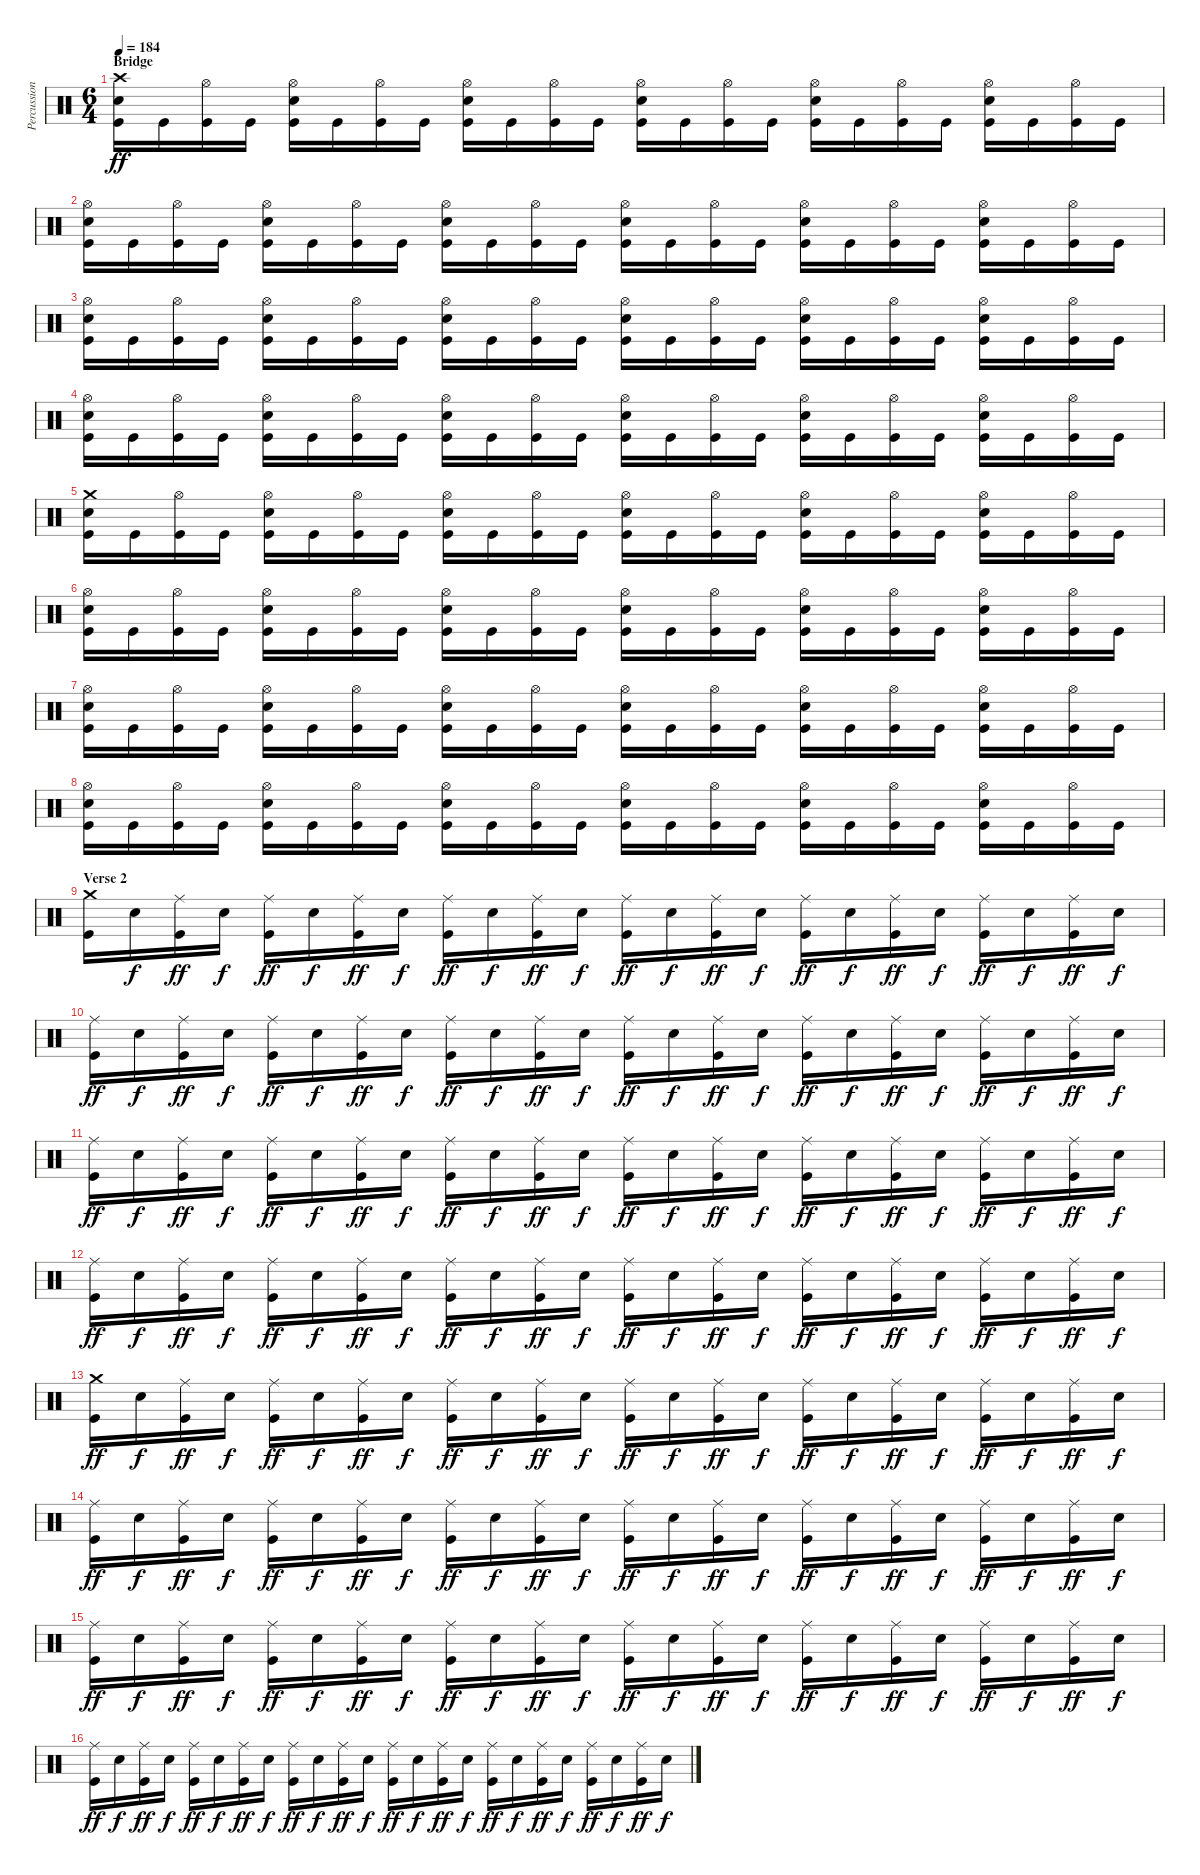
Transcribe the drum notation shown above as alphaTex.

\track ("Percussion" "Percussion") {instrument percussion}
\staff {score}
\articulation defaults
\ts (6 4)
\section ("" "Bridge")
\tempo 184
\clef neutral
\ks c
("Crash high (hit)" "Electric Snare (hit)" "Kick (hit)").16{dy ff} "Kick (hit)".16 ("Hi-Hat (open)" "Kick (hit)").16 "Kick (hit)".16 ("Hi-Hat (open)" "Electric Snare (hit)" "Kick (hit)").16 "Kick (hit)".16 ("Hi-Hat (open)" "Kick (hit)").16 "Kick (hit)".16 ("Hi-Hat (open)" "Electric Snare (hit)" "Kick (hit)").16 "Kick (hit)".16 ("Hi-Hat (open)" "Kick (hit)").16 "Kick (hit)".16 ("Hi-Hat (open)" "Electric Snare (hit)" "Kick (hit)").16 "Kick (hit)".16 ("Hi-Hat (open)" "Kick (hit)").16 "Kick (hit)".16 ("Hi-Hat (open)" "Electric Snare (hit)" "Kick (hit)").16 "Kick (hit)".16 ("Hi-Hat (open)" "Kick (hit)").16 "Kick (hit)".16 ("Hi-Hat (open)" "Electric Snare (hit)" "Kick (hit)").16 "Kick (hit)".16 ("Hi-Hat (open)" "Kick (hit)").16 "Kick (hit)".16 |
("Hi-Hat (open)" "Electric Snare (hit)" "Kick (hit)").16 "Kick (hit)".16 ("Hi-Hat (open)" "Kick (hit)").16 "Kick (hit)".16 ("Hi-Hat (open)" "Electric Snare (hit)" "Kick (hit)").16 "Kick (hit)".16 ("Hi-Hat (open)" "Kick (hit)").16 "Kick (hit)".16 ("Hi-Hat (open)" "Electric Snare (hit)" "Kick (hit)").16 "Kick (hit)".16 ("Hi-Hat (open)" "Kick (hit)").16 "Kick (hit)".16 ("Hi-Hat (open)" "Electric Snare (hit)" "Kick (hit)").16 "Kick (hit)".16 ("Hi-Hat (open)" "Kick (hit)").16 "Kick (hit)".16 ("Hi-Hat (open)" "Electric Snare (hit)" "Kick (hit)").16 "Kick (hit)".16 ("Hi-Hat (open)" "Kick (hit)").16 "Kick (hit)".16 ("Hi-Hat (open)" "Electric Snare (hit)" "Kick (hit)").16 "Kick (hit)".16 ("Hi-Hat (open)" "Kick (hit)").16 "Kick (hit)".16 |
("Hi-Hat (open)" "Electric Snare (hit)" "Kick (hit)").16 "Kick (hit)".16 ("Hi-Hat (open)" "Kick (hit)").16 "Kick (hit)".16 ("Hi-Hat (open)" "Electric Snare (hit)" "Kick (hit)").16 "Kick (hit)".16 ("Hi-Hat (open)" "Kick (hit)").16 "Kick (hit)".16 ("Hi-Hat (open)" "Electric Snare (hit)" "Kick (hit)").16 "Kick (hit)".16 ("Hi-Hat (open)" "Kick (hit)").16 "Kick (hit)".16 ("Hi-Hat (open)" "Electric Snare (hit)" "Kick (hit)").16 "Kick (hit)".16 ("Hi-Hat (open)" "Kick (hit)").16 "Kick (hit)".16 ("Hi-Hat (open)" "Electric Snare (hit)" "Kick (hit)").16 "Kick (hit)".16 ("Hi-Hat (open)" "Kick (hit)").16 "Kick (hit)".16 ("Hi-Hat (open)" "Electric Snare (hit)" "Kick (hit)").16 "Kick (hit)".16 ("Hi-Hat (open)" "Kick (hit)").16 "Kick (hit)".16 |
("Hi-Hat (open)" "Electric Snare (hit)" "Kick (hit)").16 "Kick (hit)".16 ("Hi-Hat (open)" "Kick (hit)").16 "Kick (hit)".16 ("Hi-Hat (open)" "Electric Snare (hit)" "Kick (hit)").16 "Kick (hit)".16 ("Hi-Hat (open)" "Kick (hit)").16 "Kick (hit)".16 ("Hi-Hat (open)" "Electric Snare (hit)" "Kick (hit)").16 "Kick (hit)".16 ("Hi-Hat (open)" "Kick (hit)").16 "Kick (hit)".16 ("Hi-Hat (open)" "Electric Snare (hit)" "Kick (hit)").16 "Kick (hit)".16 ("Hi-Hat (open)" "Kick (hit)").16 "Kick (hit)".16 ("Hi-Hat (open)" "Electric Snare (hit)" "Kick (hit)").16 "Kick (hit)".16 ("Hi-Hat (open)" "Kick (hit)").16 "Kick (hit)".16 ("Hi-Hat (open)" "Electric Snare (hit)" "Kick (hit)").16 "Kick (hit)".16 ("Hi-Hat (open)" "Kick (hit)").16 "Kick (hit)".16 |
("Crash medium (hit)" "Electric Snare (hit)" "Kick (hit)").16 "Kick (hit)".16 ("Hi-Hat (open)" "Kick (hit)").16 "Kick (hit)".16 ("Hi-Hat (open)" "Electric Snare (hit)" "Kick (hit)").16 "Kick (hit)".16 ("Hi-Hat (open)" "Kick (hit)").16 "Kick (hit)".16 ("Hi-Hat (open)" "Electric Snare (hit)" "Kick (hit)").16 "Kick (hit)".16 ("Hi-Hat (open)" "Kick (hit)").16 "Kick (hit)".16 ("Hi-Hat (open)" "Electric Snare (hit)" "Kick (hit)").16 "Kick (hit)".16 ("Hi-Hat (open)" "Kick (hit)").16 "Kick (hit)".16 ("Hi-Hat (open)" "Electric Snare (hit)" "Kick (hit)").16 "Kick (hit)".16 ("Hi-Hat (open)" "Kick (hit)").16 "Kick (hit)".16 ("Hi-Hat (open)" "Electric Snare (hit)" "Kick (hit)").16 "Kick (hit)".16 ("Hi-Hat (open)" "Kick (hit)").16 "Kick (hit)".16 |
("Hi-Hat (open)" "Electric Snare (hit)" "Kick (hit)").16 "Kick (hit)".16 ("Hi-Hat (open)" "Kick (hit)").16 "Kick (hit)".16 ("Hi-Hat (open)" "Electric Snare (hit)" "Kick (hit)").16 "Kick (hit)".16 ("Hi-Hat (open)" "Kick (hit)").16 "Kick (hit)".16 ("Hi-Hat (open)" "Electric Snare (hit)" "Kick (hit)").16 "Kick (hit)".16 ("Hi-Hat (open)" "Kick (hit)").16 "Kick (hit)".16 ("Hi-Hat (open)" "Electric Snare (hit)" "Kick (hit)").16 "Kick (hit)".16 ("Hi-Hat (open)" "Kick (hit)").16 "Kick (hit)".16 ("Hi-Hat (open)" "Electric Snare (hit)" "Kick (hit)").16 "Kick (hit)".16 ("Hi-Hat (open)" "Kick (hit)").16 "Kick (hit)".16 ("Hi-Hat (open)" "Electric Snare (hit)" "Kick (hit)").16 "Kick (hit)".16 ("Hi-Hat (open)" "Kick (hit)").16 "Kick (hit)".16 |
("Hi-Hat (open)" "Electric Snare (hit)" "Kick (hit)").16 "Kick (hit)".16 ("Hi-Hat (open)" "Kick (hit)").16 "Kick (hit)".16 ("Hi-Hat (open)" "Electric Snare (hit)" "Kick (hit)").16 "Kick (hit)".16 ("Hi-Hat (open)" "Kick (hit)").16 "Kick (hit)".16 ("Hi-Hat (open)" "Electric Snare (hit)" "Kick (hit)").16 "Kick (hit)".16 ("Hi-Hat (open)" "Kick (hit)").16 "Kick (hit)".16 ("Hi-Hat (open)" "Electric Snare (hit)" "Kick (hit)").16 "Kick (hit)".16 ("Hi-Hat (open)" "Kick (hit)").16 "Kick (hit)".16 ("Hi-Hat (open)" "Electric Snare (hit)" "Kick (hit)").16 "Kick (hit)".16 ("Hi-Hat (open)" "Kick (hit)").16 "Kick (hit)".16 ("Hi-Hat (open)" "Electric Snare (hit)" "Kick (hit)").16 "Kick (hit)".16 ("Hi-Hat (open)" "Kick (hit)").16 "Kick (hit)".16 |
("Hi-Hat (open)" "Electric Snare (hit)" "Kick (hit)").16 "Kick (hit)".16 ("Hi-Hat (open)" "Kick (hit)").16 "Kick (hit)".16 ("Hi-Hat (open)" "Electric Snare (hit)" "Kick (hit)").16 "Kick (hit)".16 ("Hi-Hat (open)" "Kick (hit)").16 "Kick (hit)".16 ("Hi-Hat (open)" "Electric Snare (hit)" "Kick (hit)").16 "Kick (hit)".16 ("Hi-Hat (open)" "Kick (hit)").16 "Kick (hit)".16 ("Hi-Hat (open)" "Electric Snare (hit)" "Kick (hit)").16 "Kick (hit)".16 ("Hi-Hat (open)" "Kick (hit)").16 "Kick (hit)".16 ("Hi-Hat (open)" "Electric Snare (hit)" "Kick (hit)").16 "Kick (hit)".16 ("Hi-Hat (open)" "Kick (hit)").16 "Kick (hit)".16 ("Hi-Hat (open)" "Electric Snare (hit)" "Kick (hit)").16 "Kick (hit)".16 ("Hi-Hat (open)" "Kick (hit)").16 "Kick (hit)".16 |
\section ("" "Verse 2")
("Crash medium (hit)" "Kick (hit)").16 "Electric Snare (hit)".16{dy f} ("Ride (middle)" "Kick (hit)").16{dy ff} "Electric Snare (hit)".16{dy f} ("Ride (middle)" "Kick (hit)").16{dy ff} "Electric Snare (hit)".16{dy f} ("Ride (middle)" "Kick (hit)").16{dy ff} "Electric Snare (hit)".16{dy f} ("Ride (middle)" "Kick (hit)").16{dy ff} "Electric Snare (hit)".16{dy f} ("Ride (middle)" "Kick (hit)").16{dy ff} "Electric Snare (hit)".16{dy f} ("Ride (middle)" "Kick (hit)").16{dy ff} "Electric Snare (hit)".16{dy f} ("Ride (middle)" "Kick (hit)").16{dy ff} "Electric Snare (hit)".16{dy f} ("Ride (middle)" "Kick (hit)").16{dy ff} "Electric Snare (hit)".16{dy f} ("Ride (middle)" "Kick (hit)").16{dy ff} "Electric Snare (hit)".16{dy f} ("Ride (middle)" "Kick (hit)").16{dy ff} "Electric Snare (hit)".16{dy f} ("Ride (middle)" "Kick (hit)").16{dy ff} "Electric Snare (hit)".16{dy f} |
("Ride (middle)" "Kick (hit)").16{dy ff} "Electric Snare (hit)".16{dy f} ("Ride (middle)" "Kick (hit)").16{dy ff} "Electric Snare (hit)".16{dy f} ("Ride (middle)" "Kick (hit)").16{dy ff} "Electric Snare (hit)".16{dy f} ("Ride (middle)" "Kick (hit)").16{dy ff} "Electric Snare (hit)".16{dy f} ("Ride (middle)" "Kick (hit)").16{dy ff} "Electric Snare (hit)".16{dy f} ("Ride (middle)" "Kick (hit)").16{dy ff} "Electric Snare (hit)".16{dy f} ("Ride (middle)" "Kick (hit)").16{dy ff} "Electric Snare (hit)".16{dy f} ("Ride (middle)" "Kick (hit)").16{dy ff} "Electric Snare (hit)".16{dy f} ("Ride (middle)" "Kick (hit)").16{dy ff} "Electric Snare (hit)".16{dy f} ("Ride (middle)" "Kick (hit)").16{dy ff} "Electric Snare (hit)".16{dy f} ("Ride (middle)" "Kick (hit)").16{dy ff} "Electric Snare (hit)".16{dy f} ("Ride (middle)" "Kick (hit)").16{dy ff} "Electric Snare (hit)".16{dy f} |
("Ride (middle)" "Kick (hit)").16{dy ff} "Electric Snare (hit)".16{dy f} ("Ride (middle)" "Kick (hit)").16{dy ff} "Electric Snare (hit)".16{dy f} ("Ride (middle)" "Kick (hit)").16{dy ff} "Electric Snare (hit)".16{dy f} ("Ride (middle)" "Kick (hit)").16{dy ff} "Electric Snare (hit)".16{dy f} ("Ride (middle)" "Kick (hit)").16{dy ff} "Electric Snare (hit)".16{dy f} ("Ride (middle)" "Kick (hit)").16{dy ff} "Electric Snare (hit)".16{dy f} ("Ride (middle)" "Kick (hit)").16{dy ff} "Electric Snare (hit)".16{dy f} ("Ride (middle)" "Kick (hit)").16{dy ff} "Electric Snare (hit)".16{dy f} ("Ride (middle)" "Kick (hit)").16{dy ff} "Electric Snare (hit)".16{dy f} ("Ride (middle)" "Kick (hit)").16{dy ff} "Electric Snare (hit)".16{dy f} ("Ride (middle)" "Kick (hit)").16{dy ff} "Electric Snare (hit)".16{dy f} ("Ride (middle)" "Kick (hit)").16{dy ff} "Electric Snare (hit)".16{dy f} |
("Ride (middle)" "Kick (hit)").16{dy ff} "Electric Snare (hit)".16{dy f} ("Ride (middle)" "Kick (hit)").16{dy ff} "Electric Snare (hit)".16{dy f} ("Ride (middle)" "Kick (hit)").16{dy ff} "Electric Snare (hit)".16{dy f} ("Ride (middle)" "Kick (hit)").16{dy ff} "Electric Snare (hit)".16{dy f} ("Ride (middle)" "Kick (hit)").16{dy ff} "Electric Snare (hit)".16{dy f} ("Ride (middle)" "Kick (hit)").16{dy ff} "Electric Snare (hit)".16{dy f} ("Ride (middle)" "Kick (hit)").16{dy ff} "Electric Snare (hit)".16{dy f} ("Ride (middle)" "Kick (hit)").16{dy ff} "Electric Snare (hit)".16{dy f} ("Ride (middle)" "Kick (hit)").16{dy ff} "Electric Snare (hit)".16{dy f} ("Ride (middle)" "Kick (hit)").16{dy ff} "Electric Snare (hit)".16{dy f} ("Ride (middle)" "Kick (hit)").16{dy ff} "Electric Snare (hit)".16{dy f} ("Ride (middle)" "Kick (hit)").16{dy ff} "Electric Snare (hit)".16{dy f} |
("Crash medium (hit)" "Kick (hit)").16{dy ff} "Electric Snare (hit)".16{dy f} ("Ride (middle)" "Kick (hit)").16{dy ff} "Electric Snare (hit)".16{dy f} ("Ride (middle)" "Kick (hit)").16{dy ff} "Electric Snare (hit)".16{dy f} ("Ride (middle)" "Kick (hit)").16{dy ff} "Electric Snare (hit)".16{dy f} ("Ride (middle)" "Kick (hit)").16{dy ff} "Electric Snare (hit)".16{dy f} ("Ride (middle)" "Kick (hit)").16{dy ff} "Electric Snare (hit)".16{dy f} ("Ride (middle)" "Kick (hit)").16{dy ff} "Electric Snare (hit)".16{dy f} ("Ride (middle)" "Kick (hit)").16{dy ff} "Electric Snare (hit)".16{dy f} ("Ride (middle)" "Kick (hit)").16{dy ff} "Electric Snare (hit)".16{dy f} ("Ride (middle)" "Kick (hit)").16{dy ff} "Electric Snare (hit)".16{dy f} ("Ride (middle)" "Kick (hit)").16{dy ff} "Electric Snare (hit)".16{dy f} ("Ride (middle)" "Kick (hit)").16{dy ff} "Electric Snare (hit)".16{dy f} |
("Ride (middle)" "Kick (hit)").16{dy ff} "Electric Snare (hit)".16{dy f} ("Ride (middle)" "Kick (hit)").16{dy ff} "Electric Snare (hit)".16{dy f} ("Ride (middle)" "Kick (hit)").16{dy ff} "Electric Snare (hit)".16{dy f} ("Ride (middle)" "Kick (hit)").16{dy ff} "Electric Snare (hit)".16{dy f} ("Ride (middle)" "Kick (hit)").16{dy ff} "Electric Snare (hit)".16{dy f} ("Ride (middle)" "Kick (hit)").16{dy ff} "Electric Snare (hit)".16{dy f} ("Ride (middle)" "Kick (hit)").16{dy ff} "Electric Snare (hit)".16{dy f} ("Ride (middle)" "Kick (hit)").16{dy ff} "Electric Snare (hit)".16{dy f} ("Ride (middle)" "Kick (hit)").16{dy ff} "Electric Snare (hit)".16{dy f} ("Ride (middle)" "Kick (hit)").16{dy ff} "Electric Snare (hit)".16{dy f} ("Ride (middle)" "Kick (hit)").16{dy ff} "Electric Snare (hit)".16{dy f} ("Ride (middle)" "Kick (hit)").16{dy ff} "Electric Snare (hit)".16{dy f} |
("Ride (middle)" "Kick (hit)").16{dy ff} "Electric Snare (hit)".16{dy f} ("Ride (middle)" "Kick (hit)").16{dy ff} "Electric Snare (hit)".16{dy f} ("Ride (middle)" "Kick (hit)").16{dy ff} "Electric Snare (hit)".16{dy f} ("Ride (middle)" "Kick (hit)").16{dy ff} "Electric Snare (hit)".16{dy f} ("Ride (middle)" "Kick (hit)").16{dy ff} "Electric Snare (hit)".16{dy f} ("Ride (middle)" "Kick (hit)").16{dy ff} "Electric Snare (hit)".16{dy f} ("Ride (middle)" "Kick (hit)").16{dy ff} "Electric Snare (hit)".16{dy f} ("Ride (middle)" "Kick (hit)").16{dy ff} "Electric Snare (hit)".16{dy f} ("Ride (middle)" "Kick (hit)").16{dy ff} "Electric Snare (hit)".16{dy f} ("Ride (middle)" "Kick (hit)").16{dy ff} "Electric Snare (hit)".16{dy f} ("Ride (middle)" "Kick (hit)").16{dy ff} "Electric Snare (hit)".16{dy f} ("Ride (middle)" "Kick (hit)").16{dy ff} "Electric Snare (hit)".16{dy f} |
("Ride (middle)" "Kick (hit)").16{dy ff} "Electric Snare (hit)".16{dy f} ("Ride (middle)" "Kick (hit)").16{dy ff} "Electric Snare (hit)".16{dy f} ("Ride (middle)" "Kick (hit)").16{dy ff} "Electric Snare (hit)".16{dy f} ("Ride (middle)" "Kick (hit)").16{dy ff} "Electric Snare (hit)".16{dy f} ("Ride (middle)" "Kick (hit)").16{dy ff} "Electric Snare (hit)".16{dy f} ("Ride (middle)" "Kick (hit)").16{dy ff} "Electric Snare (hit)".16{dy f} ("Ride (middle)" "Kick (hit)").16{dy ff} "Electric Snare (hit)".16{dy f} ("Ride (middle)" "Kick (hit)").16{dy ff} "Electric Snare (hit)".16{dy f} ("Ride (middle)" "Kick (hit)").16{dy ff} "Electric Snare (hit)".16{dy f} ("Ride (middle)" "Kick (hit)").16{dy ff} "Electric Snare (hit)".16{dy f} ("Ride (middle)" "Kick (hit)").16{dy ff} "Electric Snare (hit)".16{dy f} ("Ride (middle)" "Kick (hit)").16{dy ff} "Electric Snare (hit)".16{dy f}
